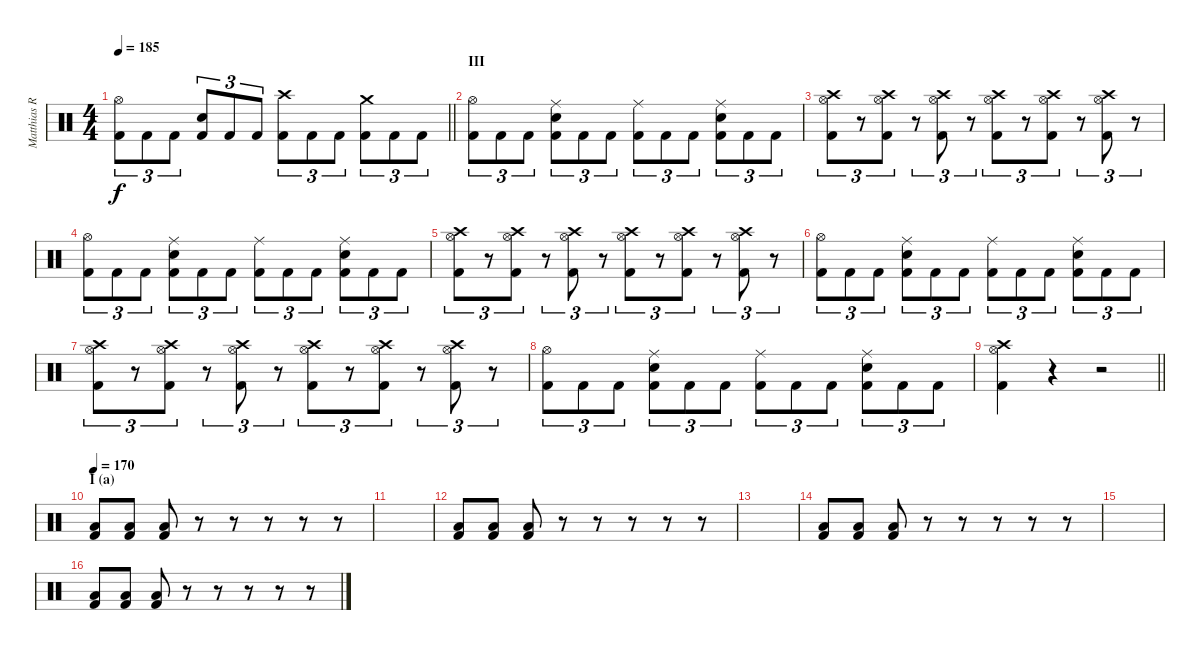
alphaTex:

\track ("Matthias R." "Matthias R") {instrument percussion}
\staff {score}
\articulation defaults
\ts (4 4)
\tempo 185
\clef neutral
\barLineRight lightlight
\ks c
("Kick (hit) 2" "Hi-Hat (open)").8{tu (3 2) dy f} "Kick (hit) 2".8{tu (3 2)} "Kick (hit) 2".8{tu (3 2)} ("Kick (hit) 2" "Snare (hit) 2").8{tu (3 2)} "Kick (hit) 2".8{tu (3 2)} "Kick (hit) 2".8{tu (3 2)} ("Kick (hit) 2" "Crash high (hit)").8{tu (3 2)} "Kick (hit) 2".8{tu (3 2)} "Kick (hit) 2".8{tu (3 2)} ("Kick (hit) 2" "Crash medium (hit)").8{tu (3 2)} "Kick (hit) 2".8{tu (3 2)} "Kick (hit) 2".8{tu (3 2)} |
\section ("" "III")
("Kick (hit) 2" "Hi-Hat (open)").8{tu (3 2)} "Kick (hit) 2".8{tu (3 2)} "Kick (hit) 2".8{tu (3 2)} ("Kick (hit) 2" "Snare (hit) 2" "Ride (middle)").8{tu (3 2)} "Kick (hit) 2".8{tu (3 2)} "Kick (hit) 2".8{tu (3 2)} ("Kick (hit) 2" "Ride (middle)").8{tu (3 2)} "Kick (hit) 2".8{tu (3 2)} "Kick (hit) 2".8{tu (3 2)} ("Kick (hit) 2" "Snare (hit) 2" "Ride (middle)").8{tu (3 2)} "Kick (hit) 2".8{tu (3 2)} "Kick (hit) 2".8{tu (3 2)} |
("Kick (hit) 2" "Hi-Hat (open)" "Crash high (hit)").8{tu (3 2)} r.8{tu (3 2)} ("Kick (hit) 2" "Hi-Hat (open)" "Crash high (hit)").8{tu (3 2)} r.8{tu (3 2)} ("Kick (hit) 2" "Hi-Hat (open)" "Crash high (hit)").8{tu (3 2)} r.8{tu (3 2)} ("Kick (hit) 2" "Hi-Hat (open)" "Crash high (hit)").8{tu (3 2)} r.8{tu (3 2)} ("Kick (hit) 2" "Hi-Hat (open)" "Crash high (hit)").8{tu (3 2)} r.8{tu (3 2)} ("Kick (hit) 2" "Hi-Hat (open)" "Crash high (hit)").8{tu (3 2)} r.8{tu (3 2)} |
("Kick (hit) 2" "Hi-Hat (open)").8{tu (3 2)} "Kick (hit) 2".8{tu (3 2)} "Kick (hit) 2".8{tu (3 2)} ("Kick (hit) 2" "Snare (hit) 2" "Ride (middle)").8{tu (3 2)} "Kick (hit) 2".8{tu (3 2)} "Kick (hit) 2".8{tu (3 2)} ("Kick (hit) 2" "Ride (middle)").8{tu (3 2)} "Kick (hit) 2".8{tu (3 2)} "Kick (hit) 2".8{tu (3 2)} ("Kick (hit) 2" "Snare (hit) 2" "Ride (middle)").8{tu (3 2)} "Kick (hit) 2".8{tu (3 2)} "Kick (hit) 2".8{tu (3 2)} |
("Kick (hit) 2" "Hi-Hat (open)" "Crash high (hit)").8{tu (3 2)} r.8{tu (3 2)} ("Kick (hit) 2" "Hi-Hat (open)" "Crash high (hit)").8{tu (3 2)} r.8{tu (3 2)} ("Kick (hit) 2" "Hi-Hat (open)" "Crash high (hit)").8{tu (3 2)} r.8{tu (3 2)} ("Kick (hit) 2" "Hi-Hat (open)" "Crash high (hit)").8{tu (3 2)} r.8{tu (3 2)} ("Kick (hit) 2" "Hi-Hat (open)" "Crash high (hit)").8{tu (3 2)} r.8{tu (3 2)} ("Kick (hit) 2" "Hi-Hat (open)" "Crash high (hit)").8{tu (3 2)} r.8{tu (3 2)} |
("Kick (hit) 2" "Hi-Hat (open)").8{tu (3 2)} "Kick (hit) 2".8{tu (3 2)} "Kick (hit) 2".8{tu (3 2)} ("Kick (hit) 2" "Snare (hit) 2" "Ride (middle)").8{tu (3 2)} "Kick (hit) 2".8{tu (3 2)} "Kick (hit) 2".8{tu (3 2)} ("Kick (hit) 2" "Ride (middle)").8{tu (3 2)} "Kick (hit) 2".8{tu (3 2)} "Kick (hit) 2".8{tu (3 2)} ("Kick (hit) 2" "Snare (hit) 2" "Ride (middle)").8{tu (3 2)} "Kick (hit) 2".8{tu (3 2)} "Kick (hit) 2".8{tu (3 2)} |
("Kick (hit) 2" "Hi-Hat (open)" "Crash high (hit)").8{tu (3 2)} r.8{tu (3 2)} ("Kick (hit) 2" "Hi-Hat (open)" "Crash high (hit)").8{tu (3 2)} r.8{tu (3 2)} ("Kick (hit) 2" "Hi-Hat (open)" "Crash high (hit)").8{tu (3 2)} r.8{tu (3 2)} ("Kick (hit) 2" "Hi-Hat (open)" "Crash high (hit)").8{tu (3 2)} r.8{tu (3 2)} ("Kick (hit) 2" "Hi-Hat (open)" "Crash high (hit)").8{tu (3 2)} r.8{tu (3 2)} ("Kick (hit) 2" "Hi-Hat (open)" "Crash high (hit)").8{tu (3 2)} r.8{tu (3 2)} |
("Kick (hit) 2" "Hi-Hat (open)").8{tu (3 2)} "Kick (hit) 2".8{tu (3 2)} "Kick (hit) 2".8{tu (3 2)} ("Kick (hit) 2" "Snare (hit) 2" "Ride (middle)").8{tu (3 2)} "Kick (hit) 2".8{tu (3 2)} "Kick (hit) 2".8{tu (3 2)} ("Kick (hit) 2" "Ride (middle)").8{tu (3 2)} "Kick (hit) 2".8{tu (3 2)} "Kick (hit) 2".8{tu (3 2)} ("Kick (hit) 2" "Snare (hit) 2" "Ride (middle)").8{tu (3 2)} "Kick (hit) 2".8{tu (3 2)} "Kick (hit) 2".8{tu (3 2)} |
\barLineRight lightlight
("Kick (hit) 2" "Crash high (hit)" "Hi-Hat (open)").4 r.4 r.2 |
\section ("" "I (a)")
\tempo 170
("Kick (hit) 2" "Low Tom (hit)").8 ("Kick (hit) 2" "Low Tom (hit)").8 ("Kick (hit) 2" "Low Tom (hit)").8 r.8 r.8 r.8 r.8 r.8 |
|
("Kick (hit) 2" "Low Tom (hit)").8 ("Kick (hit) 2" "Low Tom (hit)").8 ("Kick (hit) 2" "Low Tom (hit)").8 r.8 r.8 r.8 r.8 r.8 |
|
("Kick (hit) 2" "Low Tom (hit)").8 ("Kick (hit) 2" "Low Tom (hit)").8 ("Kick (hit) 2" "Low Tom (hit)").8 r.8 r.8 r.8 r.8 r.8 |
|
("Kick (hit) 2" "Low Tom (hit)").8 ("Kick (hit) 2" "Low Tom (hit)").8 ("Kick (hit) 2" "Low Tom (hit)").8 r.8 r.8 r.8 r.8 r.8
